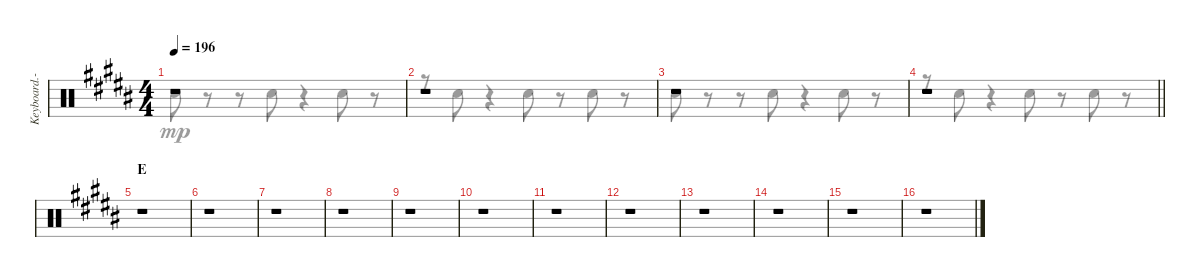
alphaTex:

\track ("Keyboard.-III" "Keyboard.-") {instrument percussion}
\staff {score}
\articulation defaults
\voice
\ts (4 4)
\tempo 196
\clef neutral
\ks b
r.1{dy mp} |
r.1 |
r.1 |
\barLineRight lightlight
r.1 |
\section ("" "E")
r.1 |
r.1 |
r.1 |
r.1 |
r.1 |
r.1 |
r.1 |
r.1 |
r.1 |
r.1 |
r.1 |
r.1
\voice
\clef neutral
\ottava regular
\simile none
\ks b "Hand Clap (hit)".8{dy mp}
r.8 r.8 "Hand Clap (hit)".8 r.4 "Hand Clap (hit)".8 r.8 |
r.8 "Hand Clap (hit)".8 r.4 "Hand Clap (hit)".8 r.8 "Hand Clap (hit)".8 r.8 |
"Hand Clap (hit)".8 r.8 r.8 "Hand Clap (hit)".8 r.4 "Hand Clap (hit)".8 r.8 |
\barLineRight lightlight
r.8 "Hand Clap (hit)".8 r.4 "Hand Clap (hit)".8 r.8 "Hand Clap (hit)".8 r.8 |
|
|
|
|
|
|
|
|
|
|
|
